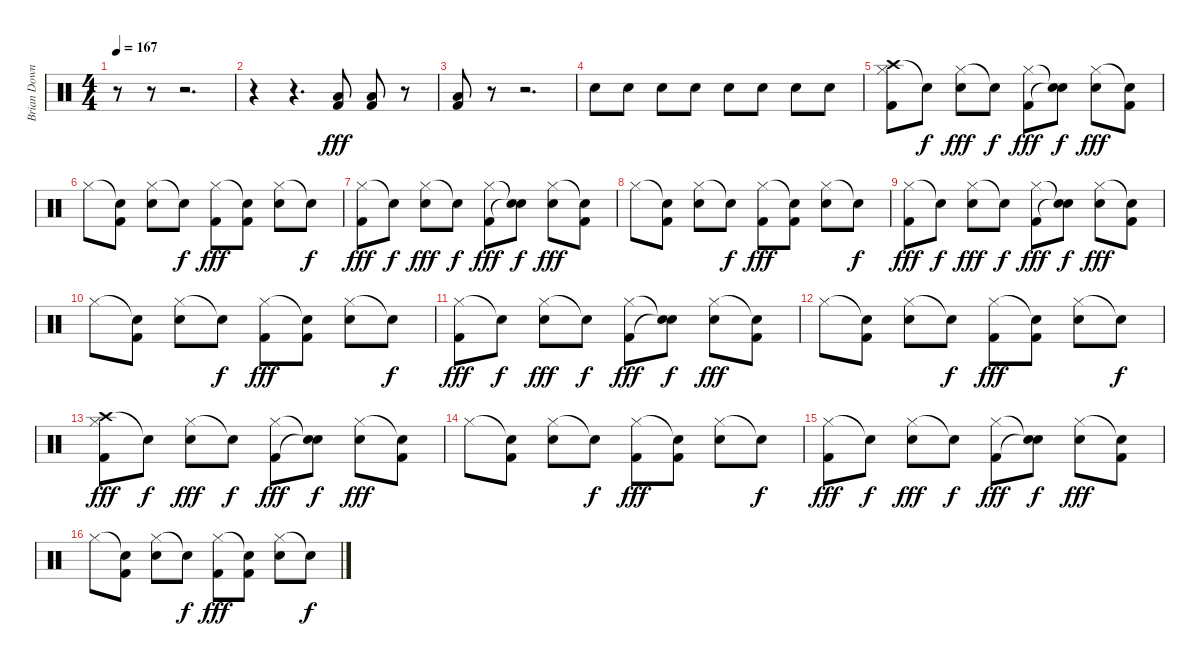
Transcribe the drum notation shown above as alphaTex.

\track ("Brian Downey" "Brian Down") {instrument percussion}
\staff {score}
\articulation defaults
\ts (4 4)
\tempo 167
\clef neutral
\ks c
r.8{dy fff} r.8 r.2{d} |
r.4 r.4{d} ("Low Floor Tom (hit)" "Kick (hit) 2").8 ("Low Floor Tom (hit)" "Kick (hit) 2").8 r.8 |
("Low Floor Tom (hit)" "Kick (hit) 2").8 r.8 r.2{d} |
"Electric Snare (hit)".8 "Electric Snare (hit)".8 "Electric Snare (hit)".8 "Electric Snare (hit)".8 "Electric Snare (hit)".8 "Electric Snare (hit)".8 "Electric Snare (hit)".8 "Electric Snare (hit)".8 |
("Crash high (hit)" "Hi-Hat (closed)" "Kick (hit) 2").8 "Snare (hit)"{t}.8{dy f} ("Hi-Hat (closed)" "Electric Snare (hit)").8{dy fff} "Snare (hit)"{t}.8{dy f} ("Hi-Hat (closed)" "Kick (hit) 2").8{dy fff} ("Snare (hit)"{t} "Electric Snare (hit)"{t}).8{dy f} ("Hi-Hat (closed)" "Electric Snare (hit)").8{dy fff} ("Snare (hit)"{t} "Kick (hit) 2").8 |
"Hi-Hat (closed)".8 ("Snare (hit)"{t} "Kick (hit) 2").8 ("Hi-Hat (closed)" "Electric Snare (hit)").8 "Snare (hit)"{t}.8{dy f} ("Hi-Hat (closed)" "Kick (hit) 2").8{dy fff} ("Snare (hit)"{t} "Kick (hit) 2").8 ("Hi-Hat (closed)" "Electric Snare (hit)").8 "Snare (hit)"{t}.8{dy f} |
("Hi-Hat (closed)" "Kick (hit) 2").8{dy fff} "Snare (hit)"{t}.8{dy f} ("Hi-Hat (closed)" "Electric Snare (hit)").8{dy fff} "Snare (hit)"{t}.8{dy f} ("Hi-Hat (closed)" "Kick (hit) 2").8{dy fff} ("Snare (hit)"{t} "Electric Snare (hit)"{t}).8{dy f} ("Hi-Hat (closed)" "Electric Snare (hit)").8{dy fff} ("Snare (hit)"{t} "Kick (hit) 2").8 |
"Hi-Hat (closed)".8 ("Snare (hit)"{t} "Kick (hit) 2").8 ("Hi-Hat (closed)" "Electric Snare (hit)").8 "Snare (hit)"{t}.8{dy f} ("Hi-Hat (closed)" "Kick (hit) 2").8{dy fff} ("Snare (hit)"{t} "Kick (hit) 2").8 ("Hi-Hat (closed)" "Electric Snare (hit)").8 "Snare (hit)"{t}.8{dy f} |
("Hi-Hat (closed)" "Kick (hit) 2").8{dy fff} "Snare (hit)"{t}.8{dy f} ("Hi-Hat (closed)" "Electric Snare (hit)").8{dy fff} "Snare (hit)"{t}.8{dy f} ("Hi-Hat (closed)" "Kick (hit) 2").8{dy fff} ("Snare (hit)"{t} "Electric Snare (hit)"{t}).8{dy f} ("Hi-Hat (closed)" "Electric Snare (hit)").8{dy fff} ("Snare (hit)"{t} "Kick (hit) 2").8 |
"Hi-Hat (closed)".8 ("Snare (hit)"{t} "Kick (hit) 2").8 ("Hi-Hat (closed)" "Electric Snare (hit)").8 "Snare (hit)"{t}.8{dy f} ("Hi-Hat (closed)" "Kick (hit) 2").8{dy fff} ("Snare (hit)"{t} "Kick (hit) 2").8 ("Hi-Hat (closed)" "Electric Snare (hit)").8 "Snare (hit)"{t}.8{dy f} |
("Hi-Hat (closed)" "Kick (hit) 2").8{dy fff} "Snare (hit)"{t}.8{dy f} ("Hi-Hat (closed)" "Electric Snare (hit)").8{dy fff} "Snare (hit)"{t}.8{dy f} ("Hi-Hat (closed)" "Kick (hit) 2").8{dy fff} ("Snare (hit)"{t} "Electric Snare (hit)"{t}).8{dy f} ("Hi-Hat (closed)" "Electric Snare (hit)").8{dy fff} ("Snare (hit)"{t} "Kick (hit) 2").8 |
"Hi-Hat (closed)".8 ("Snare (hit)"{t} "Kick (hit) 2").8 ("Hi-Hat (closed)" "Electric Snare (hit)").8 "Snare (hit)"{t}.8{dy f} ("Hi-Hat (closed)" "Kick (hit) 2").8{dy fff} ("Snare (hit)"{t} "Kick (hit) 2").8 ("Hi-Hat (closed)" "Electric Snare (hit)").8 "Snare (hit)"{t}.8{dy f} |
("Crash high (hit)" "Hi-Hat (closed)" "Kick (hit) 2").8{dy fff} "Snare (hit)"{t}.8{dy f} ("Hi-Hat (closed)" "Electric Snare (hit)").8{dy fff} "Snare (hit)"{t}.8{dy f} ("Hi-Hat (closed)" "Kick (hit) 2").8{dy fff} ("Snare (hit)"{t} "Electric Snare (hit)"{t}).8{dy f} ("Hi-Hat (closed)" "Electric Snare (hit)").8{dy fff} ("Snare (hit)"{t} "Kick (hit) 2").8 |
"Hi-Hat (closed)".8 ("Snare (hit)"{t} "Kick (hit) 2").8 ("Hi-Hat (closed)" "Electric Snare (hit)").8 "Snare (hit)"{t}.8{dy f} ("Hi-Hat (closed)" "Kick (hit) 2").8{dy fff} ("Snare (hit)"{t} "Kick (hit) 2").8 ("Hi-Hat (closed)" "Electric Snare (hit)").8 "Snare (hit)"{t}.8{dy f} |
("Hi-Hat (closed)" "Kick (hit) 2").8{dy fff} "Snare (hit)"{t}.8{dy f} ("Hi-Hat (closed)" "Electric Snare (hit)").8{dy fff} "Snare (hit)"{t}.8{dy f} ("Hi-Hat (closed)" "Kick (hit) 2").8{dy fff} ("Snare (hit)"{t} "Electric Snare (hit)"{t}).8{dy f} ("Hi-Hat (closed)" "Electric Snare (hit)").8{dy fff} ("Snare (hit)"{t} "Kick (hit) 2").8 |
"Hi-Hat (closed)".8 ("Snare (hit)"{t} "Kick (hit) 2").8 ("Hi-Hat (closed)" "Electric Snare (hit)").8 "Snare (hit)"{t}.8{dy f} ("Hi-Hat (closed)" "Kick (hit) 2").8{dy fff} ("Snare (hit)"{t} "Kick (hit) 2").8 ("Hi-Hat (closed)" "Electric Snare (hit)").8 "Snare (hit)"{t}.8{dy f}
